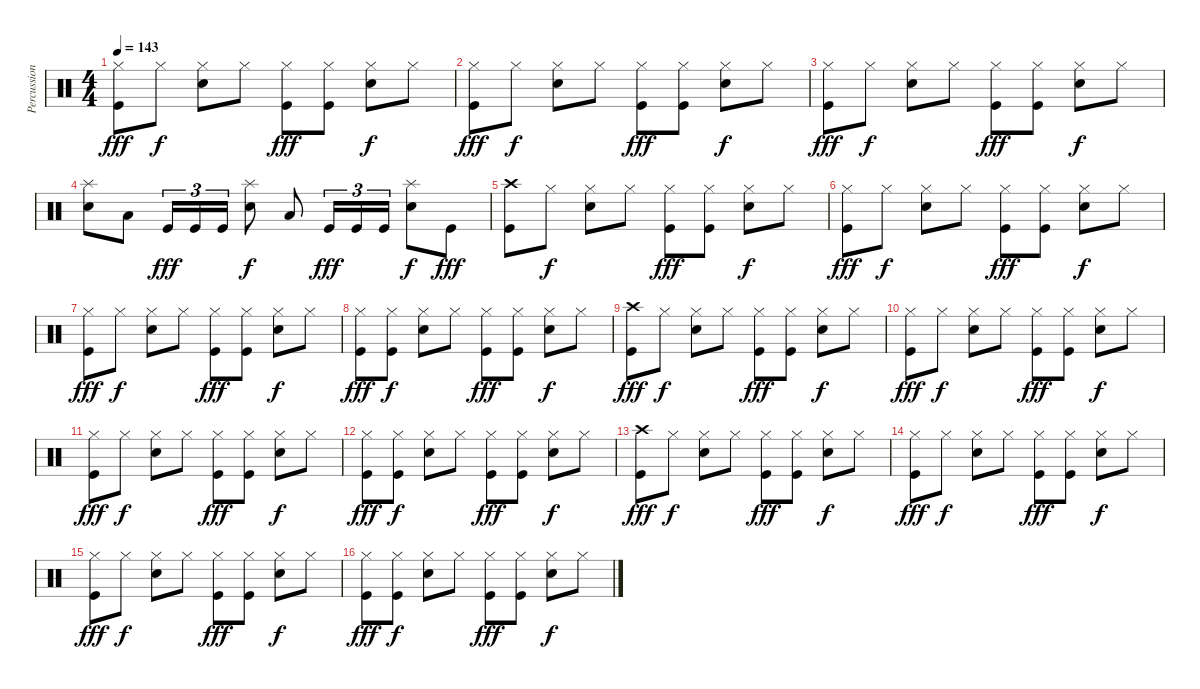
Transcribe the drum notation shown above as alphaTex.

\track ("Percussion" "Percussion") {instrument percussion}
\staff {score}
\articulation defaults
\ts (4 4)
\tempo 143
\clef neutral
\ks c
("Kick (hit)" "Hi-Hat (closed)").8{dy fff} "Hi-Hat (closed)".8{dy f} ("Electric Snare (hit)" "Hi-Hat (closed)").8 "Hi-Hat (closed)".8 ("Kick (hit)" "Hi-Hat (closed)").8{dy fff} ("Kick (hit)" "Hi-Hat (closed)").8 ("Electric Snare (hit)" "Hi-Hat (closed)").8{dy f} "Hi-Hat (closed)".8 |
("Kick (hit)" "Hi-Hat (closed)").8{dy fff} "Hi-Hat (closed)".8{dy f} ("Electric Snare (hit)" "Hi-Hat (closed)").8 "Hi-Hat (closed)".8 ("Kick (hit)" "Hi-Hat (closed)").8{dy fff} ("Kick (hit)" "Hi-Hat (closed)").8 ("Electric Snare (hit)" "Hi-Hat (closed)").8{dy f} "Hi-Hat (closed)".8 |
("Kick (hit)" "Hi-Hat (closed)").8{dy fff} "Hi-Hat (closed)".8{dy f} ("Electric Snare (hit)" "Hi-Hat (closed)").8 "Hi-Hat (closed)".8 ("Kick (hit)" "Hi-Hat (closed)").8{dy fff} ("Kick (hit)" "Hi-Hat (closed)").8 ("Electric Snare (hit)" "Hi-Hat (closed)").8{dy f} "Hi-Hat (closed)".8 |
("Splash (hit)" "Electric Snare (hit)").8 "Low Floor Tom (hit)".8 "Kick (hit)".16{tu (3 2) dy fff} "Kick (hit)".16{tu (3 2)} "Kick (hit)".16{tu (3 2)} ("Splash (hit)" "Electric Snare (hit)").8{dy f} "Low Floor Tom (hit)".8 "Kick (hit)".16{tu (3 2) dy fff} "Kick (hit)".16{tu (3 2)} "Kick (hit)".16{tu (3 2)} ("Splash (hit)" "Electric Snare (hit)").8{dy f} "Kick (hit)".8{dy fff} |
("Crash high (hit)" "Kick (hit)").8 "Hi-Hat (closed)".8{dy f} ("Electric Snare (hit)" "Hi-Hat (closed)").8 "Hi-Hat (closed)".8 ("Kick (hit)" "Hi-Hat (closed)").8{dy fff} ("Kick (hit)" "Hi-Hat (closed)").8 ("Electric Snare (hit)" "Hi-Hat (closed)").8{dy f} "Hi-Hat (closed)".8 |
("Kick (hit)" "Hi-Hat (closed)").8{dy fff} "Hi-Hat (closed)".8{dy f} ("Electric Snare (hit)" "Hi-Hat (closed)").8 "Hi-Hat (closed)".8 ("Kick (hit)" "Hi-Hat (closed)").8{dy fff} ("Kick (hit)" "Hi-Hat (closed)").8 ("Electric Snare (hit)" "Hi-Hat (closed)").8{dy f} "Hi-Hat (closed)".8 |
("Kick (hit)" "Hi-Hat (closed)").8{dy fff} "Hi-Hat (closed)".8{dy f} ("Electric Snare (hit)" "Hi-Hat (closed)").8 "Hi-Hat (closed)".8 ("Kick (hit)" "Hi-Hat (closed)").8{dy fff} ("Kick (hit)" "Hi-Hat (closed)").8 ("Electric Snare (hit)" "Hi-Hat (closed)").8{dy f} "Hi-Hat (closed)".8 |
("Kick (hit)" "Hi-Hat (closed)").8{dy fff} ("Kick (hit)" "Hi-Hat (closed)").8{dy f} ("Electric Snare (hit)" "Hi-Hat (closed)").8 "Hi-Hat (closed)".8 ("Kick (hit)" "Hi-Hat (closed)").8{dy fff} ("Kick (hit)" "Hi-Hat (closed)").8 ("Electric Snare (hit)" "Hi-Hat (closed)").8{dy f} "Hi-Hat (closed)".8 |
("Crash high (hit)" "Kick (hit)").8{dy fff} "Hi-Hat (closed)".8{dy f} ("Electric Snare (hit)" "Hi-Hat (closed)").8 "Hi-Hat (closed)".8 ("Kick (hit)" "Hi-Hat (closed)").8{dy fff} ("Kick (hit)" "Hi-Hat (closed)").8 ("Electric Snare (hit)" "Hi-Hat (closed)").8{dy f} "Hi-Hat (closed)".8 |
("Kick (hit)" "Hi-Hat (closed)").8{dy fff} "Hi-Hat (closed)".8{dy f} ("Electric Snare (hit)" "Hi-Hat (closed)").8 "Hi-Hat (closed)".8 ("Kick (hit)" "Hi-Hat (closed)").8{dy fff} ("Kick (hit)" "Hi-Hat (closed)").8 ("Electric Snare (hit)" "Hi-Hat (closed)").8{dy f} "Hi-Hat (closed)".8 |
("Kick (hit)" "Hi-Hat (closed)").8{dy fff} "Hi-Hat (closed)".8{dy f} ("Electric Snare (hit)" "Hi-Hat (closed)").8 "Hi-Hat (closed)".8 ("Kick (hit)" "Hi-Hat (closed)").8{dy fff} ("Kick (hit)" "Hi-Hat (closed)").8 ("Electric Snare (hit)" "Hi-Hat (closed)").8{dy f} "Hi-Hat (closed)".8 |
("Kick (hit)" "Hi-Hat (closed)").8{dy fff} ("Kick (hit)" "Hi-Hat (closed)").8{dy f} ("Electric Snare (hit)" "Hi-Hat (closed)").8 "Hi-Hat (closed)".8 ("Kick (hit)" "Hi-Hat (closed)").8{dy fff} ("Kick (hit)" "Hi-Hat (closed)").8 ("Electric Snare (hit)" "Hi-Hat (closed)").8{dy f} "Hi-Hat (closed)".8 |
("Crash high (hit)" "Kick (hit)").8{dy fff} "Hi-Hat (closed)".8{dy f} ("Electric Snare (hit)" "Hi-Hat (closed)").8 "Hi-Hat (closed)".8 ("Kick (hit)" "Hi-Hat (closed)").8{dy fff} ("Kick (hit)" "Hi-Hat (closed)").8 ("Electric Snare (hit)" "Hi-Hat (closed)").8{dy f} "Hi-Hat (closed)".8 |
("Kick (hit)" "Hi-Hat (closed)").8{dy fff} "Hi-Hat (closed)".8{dy f} ("Electric Snare (hit)" "Hi-Hat (closed)").8 "Hi-Hat (closed)".8 ("Kick (hit)" "Hi-Hat (closed)").8{dy fff} ("Kick (hit)" "Hi-Hat (closed)").8 ("Electric Snare (hit)" "Hi-Hat (closed)").8{dy f} "Hi-Hat (closed)".8 |
("Kick (hit)" "Hi-Hat (closed)").8{dy fff} "Hi-Hat (closed)".8{dy f} ("Electric Snare (hit)" "Hi-Hat (closed)").8 "Hi-Hat (closed)".8 ("Kick (hit)" "Hi-Hat (closed)").8{dy fff} ("Kick (hit)" "Hi-Hat (closed)").8 ("Electric Snare (hit)" "Hi-Hat (closed)").8{dy f} "Hi-Hat (closed)".8 |
("Kick (hit)" "Hi-Hat (closed)").8{dy fff} ("Kick (hit)" "Hi-Hat (closed)").8{dy f} ("Electric Snare (hit)" "Hi-Hat (closed)").8 "Hi-Hat (closed)".8 ("Kick (hit)" "Hi-Hat (closed)").8{dy fff} ("Kick (hit)" "Hi-Hat (closed)").8 ("Electric Snare (hit)" "Hi-Hat (closed)").8{dy f} "Hi-Hat (closed)".8
